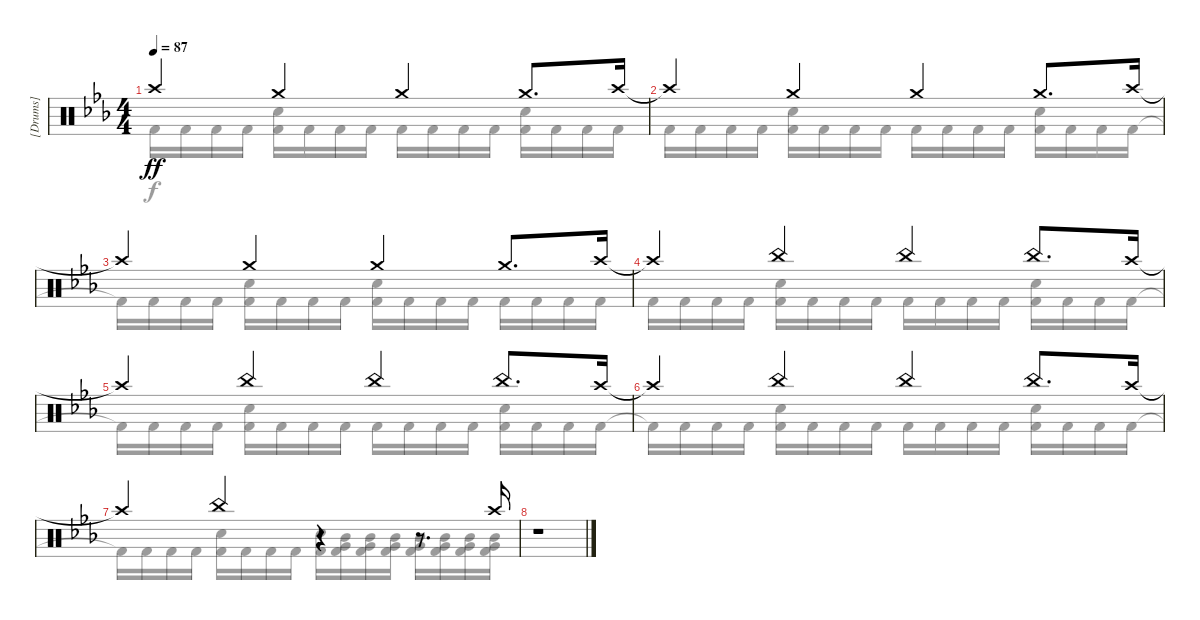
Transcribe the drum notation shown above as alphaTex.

\track ("[Drums]" "[Drums]") {instrument percussion}
\staff {score}
\articulation defaults
\voice
\ts (4 4)
\tempo 87
\clef neutral
\ks cminor "Crash high (hit)"{t}.4{dy ff} "Crash medium (hit)".4 "Crash medium (hit)".4 "Crash medium (hit)".8{d} "Crash high (hit)".16
|
"Crash high (hit)"{t}.4 "Crash medium (hit)".4 "Crash medium (hit)".4 "Crash medium (hit)".8{d} "Crash high (hit)".16 |
"Crash high (hit)"{t}.4 "Crash medium (hit)".4 "Crash medium (hit)".4 "Crash medium (hit)".8{d} "Crash high (hit)".16 |
"Crash high (hit)"{t}.4 "China (hit)".4 "China (hit)".4 "China (hit)".8{d} "Crash high (hit)".16 |
"Crash high (hit)"{t}.4 "China (hit)".4 "China (hit)".4 "China (hit)".8{d} "Crash high (hit)".16 |
"Crash high (hit)"{t}.4 "China (hit)".4 "China (hit)".4 "China (hit)".8{d} "Crash high (hit)".16 |
"Crash high (hit)"{t}.4 "China (hit)".4 r.4 r.8{d} "Crash high (hit)".16 |
r.1
\voice
\clef neutral
\ottava regular
\simile none
\ks cminor "Kick (hit) 2"{t}.16{dy f} "Kick (hit) 2".16 "Kick (hit) 2".16 "Kick (hit) 2".16
("Snare (hit) 2" "Kick (hit) 2").16 "Kick (hit) 2".16 "Kick (hit) 2".16 "Kick (hit) 2".16 "Kick (hit) 2".16 "Kick (hit) 2".16 "Kick (hit) 2".16 "Kick (hit) 2".16 ("Snare (hit) 2" "Kick (hit) 2").16 "Kick (hit) 2".16 "Kick (hit) 2".16 "Kick (hit) 2".16 |
"Kick (hit) 2".16 "Kick (hit) 2".16 "Kick (hit) 2".16 "Kick (hit) 2".16 ("Snare (hit) 2" "Kick (hit) 2").16 "Kick (hit) 2".16 "Kick (hit) 2".16 "Kick (hit) 2".16 "Kick (hit) 2".16 "Kick (hit) 2".16 "Kick (hit) 2".16 "Kick (hit) 2".16 ("Snare (hit) 2" "Kick (hit) 2").16 "Kick (hit) 2".16 "Kick (hit) 2".16 "Kick (hit) 2".16 |
"Kick (hit) 2"{t}.16 "Kick (hit) 2".16 "Kick (hit) 2".16 "Kick (hit) 2".16 ("Snare (hit) 2" "Kick (hit) 2").16 "Kick (hit) 2".16 "Kick (hit) 2".16 "Kick (hit) 2".16 ("Kick (hit) 2" "Snare (hit) 2").16 "Kick (hit) 2".16 "Kick (hit) 2".16 "Kick (hit) 2".16 "Kick (hit) 2".16 "Kick (hit) 2".16 "Kick (hit) 2".16 "Kick (hit) 2".16 |
"Kick (hit) 2".16 "Kick (hit) 2".16 "Kick (hit) 2".16 "Kick (hit) 2".16 ("Snare (hit) 2" "Kick (hit) 2").16 "Kick (hit) 2".16 "Kick (hit) 2".16 "Kick (hit) 2".16 "Kick (hit) 2".16 "Kick (hit) 2".16 "Kick (hit) 2".16 "Kick (hit) 2".16 ("Snare (hit) 2" "Kick (hit) 2").16 "Kick (hit) 2".16 "Kick (hit) 2".16 "Kick (hit) 2".16 |
"Kick (hit) 2"{t}.16 "Kick (hit) 2".16 "Kick (hit) 2".16 "Kick (hit) 2".16 ("Snare (hit) 2" "Kick (hit) 2").16 "Kick (hit) 2".16 "Kick (hit) 2".16 "Kick (hit) 2".16 "Kick (hit) 2".16 "Kick (hit) 2".16 "Kick (hit) 2".16 "Kick (hit) 2".16 ("Snare (hit) 2" "Kick (hit) 2").16 "Kick (hit) 2".16 "Kick (hit) 2".16 "Kick (hit) 2".16 |
"Kick (hit) 2"{t}.16 "Kick (hit) 2".16 "Kick (hit) 2".16 "Kick (hit) 2".16 ("Snare (hit) 2" "Kick (hit) 2").16 "Kick (hit) 2".16 "Kick (hit) 2".16 "Kick (hit) 2".16 "Kick (hit) 2".16 "Kick (hit) 2".16 "Kick (hit) 2".16 "Kick (hit) 2".16 ("Snare (hit) 2" "Kick (hit) 2").16 "Kick (hit) 2".16 "Kick (hit) 2".16 "Kick (hit) 2".16 |
"Kick (hit) 2"{t}.16 "Kick (hit) 2".16 "Kick (hit) 2".16 "Kick (hit) 2".16 ("Snare (hit) 2" "Kick (hit) 2").16 "Kick (hit) 2".16 "Kick (hit) 2".16 "Kick (hit) 2".16 ("Kick (hit) 2" "Snare (hit) 2").16 ("Kick (hit) 2" "Mid Tom (hit)" "Very Low Tom (hit)").16 ("Kick (hit) 2" "Mid Tom (hit)" "Very Low Tom (hit)").16 ("Kick (hit) 2" "Mid Tom (hit)" "Very Low Tom (hit)").16 ("Kick (hit) 2" "Mid Tom (hit)" "Very Low Tom (hit)").16 ("Kick (hit) 2" "Mid Tom (hit)" "Very Low Tom (hit)").16 ("Kick (hit) 2" "Mid Tom (hit)" "Very Low Tom (hit)").16 ("Kick (hit) 2" "Mid Tom (hit)" "Very Low Tom (hit)").16 |
